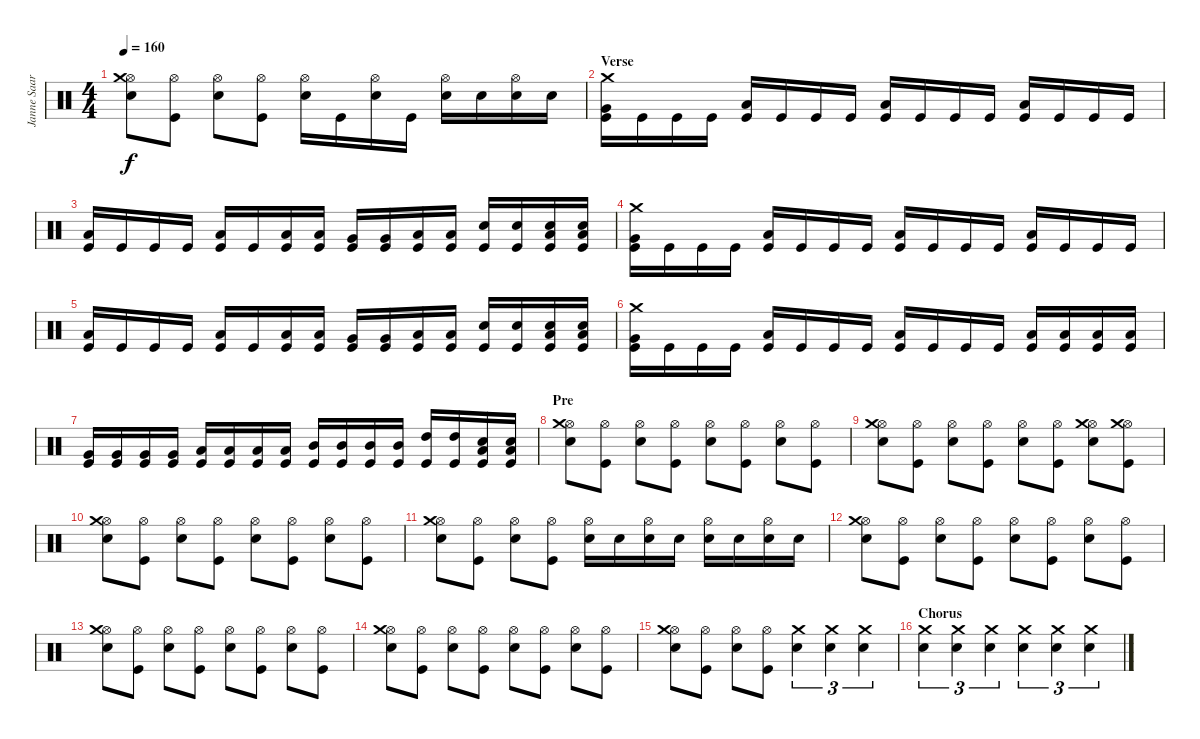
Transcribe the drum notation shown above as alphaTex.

\track ("Janne Saarenpaa" "Janne Saar") {instrument percussion}
\staff {score}
\articulation defaults
\ts (4 4)
\tempo 160
\clef neutral
\ks c
("Hi-Hat (open)" "Snare (hit) 2" "Crash medium (hit)").8{dy f} ("Hi-Hat (open)" "Kick (hit)").8 ("Hi-Hat (open)" "Snare (hit) 2").8 ("Hi-Hat (open)" "Kick (hit)").8 ("Hi-Hat (open)" "Snare (hit) 2").16 "Kick (hit)".16 ("Hi-Hat (open)" "Snare (hit) 2").16 "Kick (hit)".16 ("Hi-Hat (open)" "Snare (hit) 2").16 "Snare (hit) 2".16 ("Hi-Hat (open)" "Snare (hit) 2").16 "Snare (hit) 2".16 |
\section ("" "Verse")
("Kick (hit)" "Very Low Tom (hit)" "Crash medium (hit)").16 "Kick (hit)".16 "Kick (hit)".16 "Kick (hit)".16 ("Kick (hit)" "Low Tom (hit)").16 "Kick (hit)".16 "Kick (hit)".16 "Kick (hit)".16 ("Kick (hit)" "Low Tom (hit)").16 "Kick (hit)".16 "Kick (hit)".16 "Kick (hit)".16 ("Kick (hit)" "Low Tom (hit)").16 "Kick (hit)".16 "Kick (hit)".16 "Kick (hit)".16 |
("Kick (hit)" "Low Tom (hit)").16 "Kick (hit)".16 "Kick (hit)".16 "Kick (hit)".16 ("Kick (hit)" "Low Tom (hit)").16 "Kick (hit)".16 ("Kick (hit)" "Low Tom (hit)").16 ("Kick (hit)" "Low Tom (hit)").16 ("Kick (hit)" "Very Low Tom (hit)").16 ("Kick (hit)" "Very Low Tom (hit)").16 ("Kick (hit)" "Low Tom (hit)").16 ("Kick (hit)" "Low Tom (hit)").16 ("Kick (hit)" "Snare (hit) 2").16 ("Kick (hit)" "Snare (hit) 2").16 ("Kick (hit)" "Snare (hit) 2" "Low Tom (hit)").16 ("Kick (hit)" "Snare (hit) 2" "Low Tom (hit)").16 |
("Kick (hit)" "Very Low Tom (hit)" "Crash medium (hit)").16 "Kick (hit)".16 "Kick (hit)".16 "Kick (hit)".16 ("Kick (hit)" "Low Tom (hit)").16 "Kick (hit)".16 "Kick (hit)".16 "Kick (hit)".16 ("Kick (hit)" "Low Tom (hit)").16 "Kick (hit)".16 "Kick (hit)".16 "Kick (hit)".16 ("Kick (hit)" "Low Tom (hit)").16 "Kick (hit)".16 "Kick (hit)".16 "Kick (hit)".16 |
("Kick (hit)" "Low Tom (hit)").16 "Kick (hit)".16 "Kick (hit)".16 "Kick (hit)".16 ("Kick (hit)" "Low Tom (hit)").16 "Kick (hit)".16 ("Kick (hit)" "Low Tom (hit)").16 ("Kick (hit)" "Low Tom (hit)").16 ("Kick (hit)" "Very Low Tom (hit)").16 ("Kick (hit)" "Very Low Tom (hit)").16 ("Kick (hit)" "Low Tom (hit)").16 ("Kick (hit)" "Low Tom (hit)").16 ("Kick (hit)" "Snare (hit) 2").16 ("Kick (hit)" "Snare (hit) 2").16 ("Kick (hit)" "Snare (hit) 2" "Low Tom (hit)").16 ("Kick (hit)" "Snare (hit) 2" "Low Tom (hit)").16 |
("Kick (hit)" "Very Low Tom (hit)" "Crash medium (hit)").16 "Kick (hit)".16 "Kick (hit)".16 "Kick (hit)".16 ("Kick (hit)" "Low Tom (hit)").16 "Kick (hit)".16 "Kick (hit)".16 "Kick (hit)".16 ("Kick (hit)" "Low Tom (hit)").16 "Kick (hit)".16 "Kick (hit)".16 "Kick (hit)".16 ("Kick (hit)" "Low Floor Tom (hit)").16 ("Kick (hit)" "Low Floor Tom (hit)").16 ("Kick (hit)" "Low Floor Tom (hit)").16 ("Kick (hit)" "Low Floor Tom (hit)").16 |
("Kick (hit)" "Very Low Tom (hit)").16 ("Kick (hit)" "Very Low Tom (hit)").16 ("Kick (hit)" "Very Low Tom (hit)").16 ("Kick (hit)" "Very Low Tom (hit)").16 ("Kick (hit)" "Low Tom (hit)").16 ("Kick (hit)" "Low Tom (hit)").16 ("Kick (hit)" "Low Tom (hit)").16 ("Kick (hit)" "Low Tom (hit)").16 ("Kick (hit)" "Mid Tom (hit)").16 ("Kick (hit)" "Mid Tom (hit)").16 ("Kick (hit)" "Mid Tom (hit)").16 ("Kick (hit)" "Mid Tom (hit)").16 ("Kick (hit)" "High Tom (hit)").16 ("Kick (hit)" "High Tom (hit)").16 ("Kick (hit)" "Snare (hit) 2" "Low Tom (hit)").16 ("Kick (hit)" "Snare (hit) 2" "Low Tom (hit)").16 |
\section ("" "Pre")
("Hi-Hat (open)" "Snare (hit) 2" "Crash medium (hit)").8 ("Hi-Hat (open)" "Kick (hit)").8 ("Hi-Hat (open)" "Snare (hit) 2").8 ("Hi-Hat (open)" "Kick (hit)").8 ("Hi-Hat (open)" "Snare (hit) 2").8 ("Hi-Hat (open)" "Kick (hit)").8 ("Hi-Hat (open)" "Snare (hit) 2").8 ("Hi-Hat (open)" "Kick (hit)").8 |
("Hi-Hat (open)" "Snare (hit) 2" "Crash medium (hit)").8 ("Hi-Hat (open)" "Kick (hit)").8 ("Hi-Hat (open)" "Snare (hit) 2").8 ("Hi-Hat (open)" "Kick (hit)").8 ("Hi-Hat (open)" "Snare (hit) 2").8 ("Hi-Hat (open)" "Kick (hit)").8 ("Hi-Hat (open)" "Snare (hit) 2" "Crash medium (hit)").8 ("Hi-Hat (open)" "Kick (hit)" "Crash medium (hit)").8 |
("Hi-Hat (open)" "Snare (hit) 2" "Crash medium (hit)").8 ("Hi-Hat (open)" "Kick (hit)").8 ("Hi-Hat (open)" "Snare (hit) 2").8 ("Hi-Hat (open)" "Kick (hit)").8 ("Hi-Hat (open)" "Snare (hit) 2").8 ("Hi-Hat (open)" "Kick (hit)").8 ("Hi-Hat (open)" "Snare (hit) 2").8 ("Hi-Hat (open)" "Kick (hit)").8 |
("Hi-Hat (open)" "Snare (hit) 2" "Crash medium (hit)").8 ("Hi-Hat (open)" "Kick (hit)").8 ("Hi-Hat (open)" "Snare (hit) 2").8 ("Hi-Hat (open)" "Kick (hit)").8 ("Hi-Hat (open)" "Snare (hit) 2").16 "Snare (hit) 2".16 ("Hi-Hat (open)" "Snare (hit) 2").16 "Snare (hit) 2".16 ("Hi-Hat (open)" "Snare (hit) 2").16 "Snare (hit) 2".16 ("Hi-Hat (open)" "Snare (hit) 2").16 "Snare (hit) 2".16 |
("Hi-Hat (open)" "Snare (hit) 2" "Crash medium (hit)").8 ("Hi-Hat (open)" "Kick (hit)").8 ("Hi-Hat (open)" "Snare (hit) 2").8 ("Hi-Hat (open)" "Kick (hit)").8 ("Hi-Hat (open)" "Snare (hit) 2").8 ("Hi-Hat (open)" "Kick (hit)").8 ("Hi-Hat (open)" "Snare (hit) 2").8 ("Hi-Hat (open)" "Kick (hit)").8 |
("Hi-Hat (open)" "Snare (hit) 2" "Crash medium (hit)").8 ("Hi-Hat (open)" "Kick (hit)").8 ("Hi-Hat (open)" "Snare (hit) 2").8 ("Hi-Hat (open)" "Kick (hit)").8 ("Hi-Hat (open)" "Snare (hit) 2").8 ("Hi-Hat (open)" "Kick (hit)").8 ("Hi-Hat (open)" "Snare (hit) 2").8 ("Hi-Hat (open)" "Kick (hit)").8 |
("Hi-Hat (open)" "Snare (hit) 2" "Crash medium (hit)").8 ("Hi-Hat (open)" "Kick (hit)").8 ("Hi-Hat (open)" "Snare (hit) 2").8 ("Hi-Hat (open)" "Kick (hit)").8 ("Hi-Hat (open)" "Snare (hit) 2").8 ("Hi-Hat (open)" "Kick (hit)").8 ("Hi-Hat (open)" "Snare (hit) 2").8 ("Hi-Hat (open)" "Kick (hit)").8 |
("Hi-Hat (open)" "Snare (hit) 2" "Crash medium (hit)").8 ("Hi-Hat (open)" "Kick (hit)").8 ("Hi-Hat (open)" "Snare (hit) 2").8 ("Hi-Hat (open)" "Kick (hit)").8 ("Crash medium (hit)" "Snare (hit) 2").4{tu (3 2)} ("Crash medium (hit)" "Snare (hit) 2").4{tu (3 2)} ("Crash medium (hit)" "Snare (hit) 2").4{tu (3 2)} |
\section ("" "Chorus")
("Crash medium (hit)" "Snare (hit) 2").4{tu (3 2)} ("Crash medium (hit)" "Snare (hit) 2").4{tu (3 2)} ("Crash medium (hit)" "Snare (hit) 2").4{tu (3 2)} ("Crash medium (hit)" "Snare (hit) 2").4{tu (3 2)} ("Crash medium (hit)" "Snare (hit) 2").4{tu (3 2)} ("Crash medium (hit)" "Snare (hit) 2").4{tu (3 2)}
